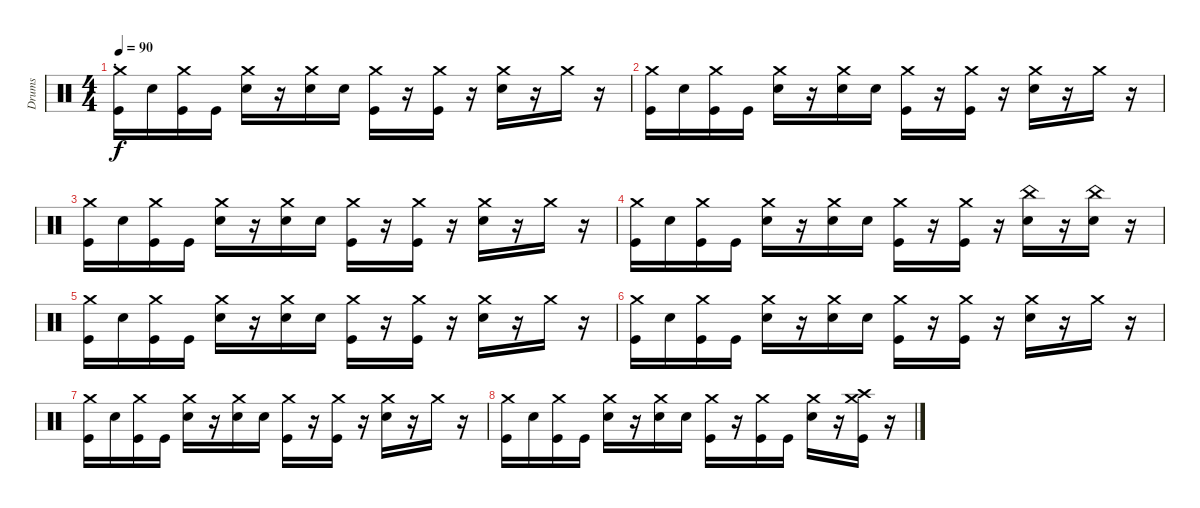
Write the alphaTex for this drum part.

\track ("Drums" "Drums") {instrument percussion}
\staff {score}
\articulation defaults
\ts (4 4)
\section ("" ".")
\tempo 90
\clef neutral
\ks c
("Crash medium (hit)" "Kick (hit)").16{dy f} "Snare (hit) 2".16 ("Crash medium (hit)" "Kick (hit)").16 "Kick (hit)".16 ("Crash medium (hit)" "Snare (hit) 2").16 r.16 ("Crash medium (hit)" "Snare (hit) 2").16 "Snare (hit) 2".16 ("Crash medium (hit)" "Kick (hit)").16 r.16 ("Crash medium (hit)" "Kick (hit)").16 r.16 ("Crash medium (hit)" "Snare (hit) 2").16 r.16 "Crash medium (hit)".16 r.16 |
("Crash medium (hit)" "Kick (hit)").16 "Snare (hit) 2".16 ("Crash medium (hit)" "Kick (hit)").16 "Kick (hit)".16 ("Crash medium (hit)" "Snare (hit) 2").16 r.16 ("Crash medium (hit)" "Snare (hit) 2").16 "Snare (hit) 2".16 ("Crash medium (hit)" "Kick (hit)").16 r.16 ("Crash medium (hit)" "Kick (hit)").16 r.16 ("Crash medium (hit)" "Snare (hit) 2").16 r.16 "Crash medium (hit)".16 r.16 |
("Crash medium (hit)" "Kick (hit)").16 "Snare (hit) 2".16 ("Crash medium (hit)" "Kick (hit)").16 "Kick (hit)".16 ("Crash medium (hit)" "Snare (hit) 2").16 r.16 ("Crash medium (hit)" "Snare (hit) 2").16 "Snare (hit) 2".16 ("Crash medium (hit)" "Kick (hit)").16 r.16 ("Crash medium (hit)" "Kick (hit)").16 r.16 ("Crash medium (hit)" "Snare (hit) 2").16 r.16 "Crash medium (hit)".16 r.16 |
("Crash medium (hit)" "Kick (hit)").16 "Snare (hit) 2".16 ("Crash medium (hit)" "Kick (hit)").16 "Kick (hit)".16 ("Crash medium (hit)" "Snare (hit) 2").16 r.16 ("Crash medium (hit)" "Snare (hit) 2").16 "Snare (hit) 2".16 ("Crash medium (hit)" "Kick (hit)").16 r.16 ("Crash medium (hit)" "Kick (hit)").16 r.16 ("China (hit)" "Snare (hit) 2").16 r.16 ("China (hit)" "Snare (hit) 2").16 r.16 |
("Crash medium (hit)" "Kick (hit)").16 "Snare (hit) 2".16 ("Crash medium (hit)" "Kick (hit)").16 "Kick (hit)".16 ("Crash medium (hit)" "Snare (hit) 2").16 r.16 ("Crash medium (hit)" "Snare (hit) 2").16 "Snare (hit) 2".16 ("Crash medium (hit)" "Kick (hit)").16 r.16 ("Crash medium (hit)" "Kick (hit)").16 r.16 ("Crash medium (hit)" "Snare (hit) 2").16 r.16 "Crash medium (hit)".16 r.16 |
("Crash medium (hit)" "Kick (hit)").16 "Snare (hit) 2".16 ("Crash medium (hit)" "Kick (hit)").16 "Kick (hit)".16 ("Crash medium (hit)" "Snare (hit) 2").16 r.16 ("Crash medium (hit)" "Snare (hit) 2").16 "Snare (hit) 2".16 ("Crash medium (hit)" "Kick (hit)").16 r.16 ("Crash medium (hit)" "Kick (hit)").16 r.16 ("Crash medium (hit)" "Snare (hit) 2").16 r.16 "Crash medium (hit)".16 r.16 |
("Crash medium (hit)" "Kick (hit)").16 "Snare (hit) 2".16 ("Crash medium (hit)" "Kick (hit)").16 "Kick (hit)".16 ("Crash medium (hit)" "Snare (hit) 2").16 r.16 ("Crash medium (hit)" "Snare (hit) 2").16 "Snare (hit) 2".16 ("Crash medium (hit)" "Kick (hit)").16 r.16 ("Crash medium (hit)" "Kick (hit)").16 r.16 ("Crash medium (hit)" "Snare (hit) 2").16 r.16 "Crash medium (hit)".16 r.16 |
("Crash medium (hit)" "Kick (hit)").16 "Snare (hit) 2".16 ("Crash medium (hit)" "Kick (hit)").16 "Kick (hit)".16 ("Crash medium (hit)" "Snare (hit) 2").16 r.16 ("Crash medium (hit)" "Snare (hit) 2").16 "Snare (hit) 2".16 ("Crash medium (hit)" "Kick (hit)").16 r.16 ("Crash medium (hit)" "Kick (hit)").16 "Kick (hit)".16 ("Crash medium (hit)" "Snare (hit) 2").16 r.16 ("Crash high (hit)" "Crash medium (hit)" "Kick (hit)").16 r.16
